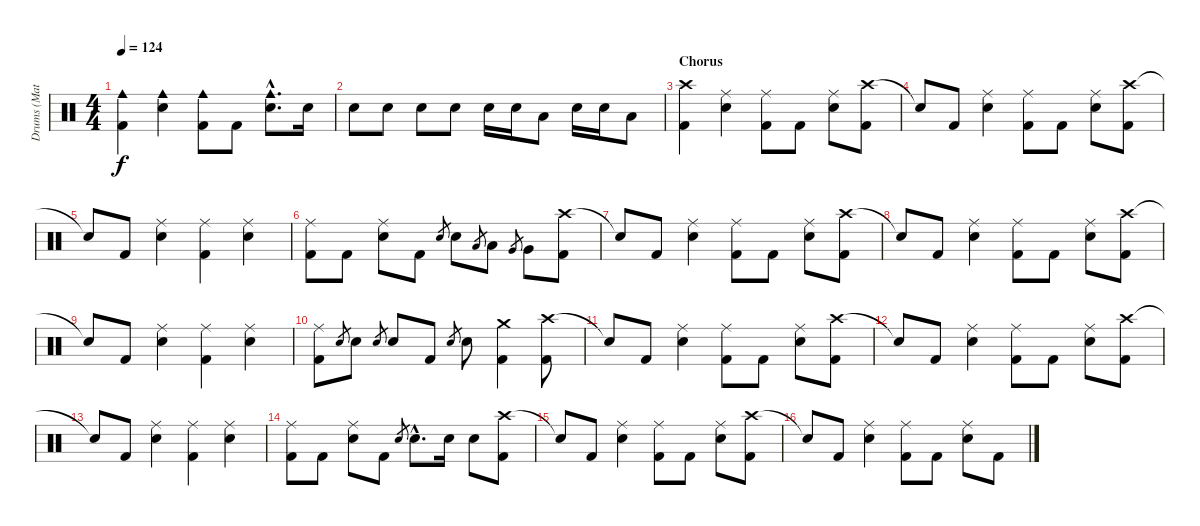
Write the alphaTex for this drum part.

\track ("Drums (Matt)" "Drums (Mat") {instrument percussion}
\staff {score}
\articulation defaults
\ts (4 4)
\tempo 124
\clef neutral
\ks c
("Cowbell medium (hit)" "Kick (hit) 2").4{dy f} ("Cowbell medium (hit)" "Snare (hit) 2").4 ("Cowbell medium (hit)" "Kick (hit) 2").8 "Kick (hit) 2".8 ("Cowbell medium (hit)"{hac} "Snare (hit) 2"{hac}).8{d} "Snare (hit) 2".16 |
"Snare (hit) 2".8 "Snare (hit) 2".8 "Snare (hit) 2".8 "Snare (hit) 2".8 "Snare (hit) 2".16 "Snare (hit) 2".16 "Low Tom (hit)".8 "Snare (hit) 2".16 "Snare (hit) 2".16 "Low Tom (hit)".8 |
\section ("" "Chorus")
("Crash high (hit)" "Kick (hit) 2").4 ("Ride (middle)" "Snare (hit) 2").4 ("Ride (middle)" "Kick (hit) 2").8 "Kick (hit) 2".8 ("Ride (middle)" "Snare (hit) 2").8 ("Crash high (hit)" "Kick (hit) 2").8 |
"Snare (hit)"{t}.8 "Kick (hit) 2".8 ("Ride (middle)" "Snare (hit) 2").4 ("Ride (middle)" "Kick (hit) 2").8 "Kick (hit) 2".8 ("Ride (middle)" "Snare (hit) 2").8 ("Crash high (hit)" "Kick (hit) 2").8 |
"Snare (hit)"{t}.8 "Kick (hit) 2".8 ("Ride (middle)" "Snare (hit) 2").4 ("Ride (middle)" "Kick (hit) 2").4 ("Ride (middle)" "Snare (hit) 2").4 |
("Ride (middle)" "Kick (hit) 2").8 "Kick (hit) 2".8 ("Ride (middle)" "Snare (hit) 2").8 "Kick (hit) 2".8 "Snare (hit) 2".8{gr} "Snare (hit) 2".8 "Low Tom (hit)".8{gr} "Low Tom (hit)".8 "Very Low Tom (hit)".8{gr} "Very Low Tom (hit)".8 ("Crash high (hit)" "Kick (hit) 2").8 |
"Snare (hit)"{t}.8 "Kick (hit) 2".8 ("Ride (middle)" "Snare (hit) 2").4 ("Ride (middle)" "Kick (hit) 2").8 "Kick (hit) 2".8 ("Ride (middle)" "Snare (hit) 2").8 ("Crash high (hit)" "Kick (hit) 2").8 |
"Snare (hit)"{t}.8 "Kick (hit) 2".8 ("Ride (middle)" "Snare (hit) 2").4 ("Ride (middle)" "Kick (hit) 2").8 "Kick (hit) 2".8 ("Ride (middle)" "Snare (hit) 2").8 ("Crash high (hit)" "Kick (hit) 2").8 |
"Snare (hit)"{t}.8 "Kick (hit) 2".8 ("Ride (middle)" "Snare (hit) 2").4 ("Ride (middle)" "Kick (hit) 2").4 ("Ride (middle)" "Snare (hit) 2").4 |
("Ride (middle)" "Kick (hit) 2").8 "Snare (hit) 2".8{gr} "Snare (hit) 2".8 "Snare (hit) 2".8{gr} "Snare (hit) 2".8 "Kick (hit) 2".8 "Snare (hit) 2".8{gr} "Snare (hit) 2".8 ("Crash medium (hit)" "Kick (hit) 2").4 ("Crash high (hit)" "Kick (hit) 2").8 |
"Snare (hit)"{t}.8 "Kick (hit) 2".8 ("Ride (middle)" "Snare (hit) 2").4 ("Ride (middle)" "Kick (hit) 2").8 "Kick (hit) 2".8 ("Ride (middle)" "Snare (hit) 2").8 ("Crash high (hit)" "Kick (hit) 2").8 |
"Snare (hit)"{t}.8 "Kick (hit) 2".8 ("Ride (middle)" "Snare (hit) 2").4 ("Ride (middle)" "Kick (hit) 2").8 "Kick (hit) 2".8 ("Ride (middle)" "Snare (hit) 2").8 ("Crash high (hit)" "Kick (hit) 2").8 |
"Snare (hit)"{t}.8 "Kick (hit) 2".8 ("Ride (middle)" "Snare (hit) 2").4 ("Ride (middle)" "Kick (hit) 2").4 ("Ride (middle)" "Snare (hit) 2").4 |
("Ride (middle)" "Kick (hit) 2").8 "Kick (hit) 2".8 ("Ride (middle)" "Snare (hit) 2").8 "Kick (hit) 2".8 "Snare (hit) 2".8{gr} "Snare (hit) 2"{hac}.8{d} "Snare (hit) 2".16 "Snare (hit) 2".8 ("Crash high (hit)" "Kick (hit) 2").8 |
"Snare (hit)"{t}.8 "Kick (hit) 2".8 ("Ride (middle)" "Snare (hit) 2").4 ("Ride (middle)" "Kick (hit) 2").8 "Kick (hit) 2".8 ("Ride (middle)" "Snare (hit) 2").8 ("Crash high (hit)" "Kick (hit) 2").8 |
"Snare (hit)"{t}.8 "Kick (hit) 2".8 ("Ride (middle)" "Snare (hit) 2").4 ("Ride (middle)" "Kick (hit) 2").8 "Kick (hit) 2".8 ("Ride (middle)" "Snare (hit) 2").8 "Kick (hit) 2".8
